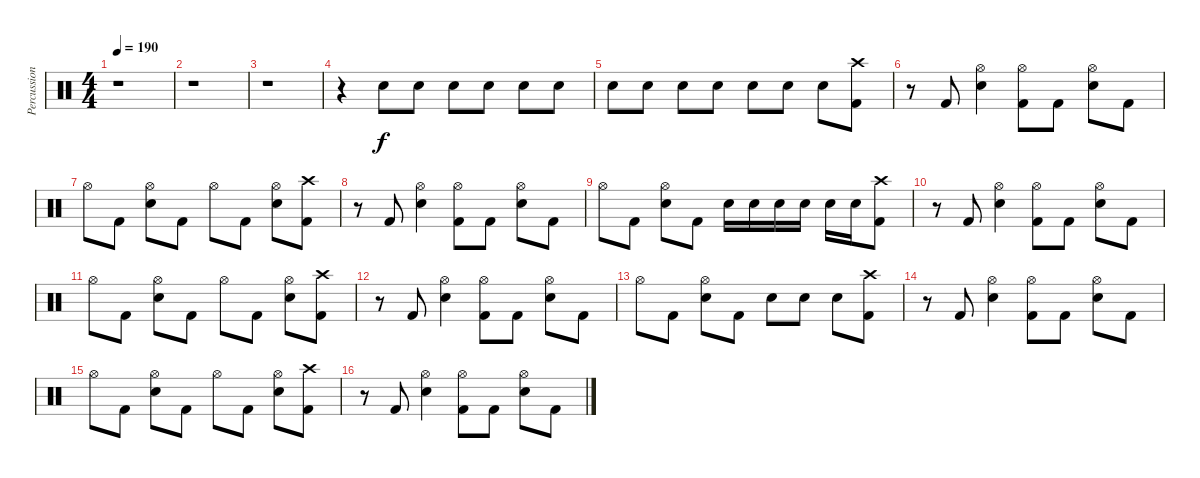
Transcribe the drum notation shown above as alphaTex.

\track ("Percussion" "Percussion") {instrument percussion}
\staff {score}
\articulation defaults
\ts (4 4)
\tempo 190
\clef neutral
\ks c
r.1{dy f} |
r.1 |
r.1 |
r.4 "Electric Snare (hit)".8 "Electric Snare (hit)".8 "Electric Snare (hit)".8 "Electric Snare (hit)".8 "Electric Snare (hit)".8 "Electric Snare (hit)".8 |
"Electric Snare (hit)".8 "Electric Snare (hit)".8 "Electric Snare (hit)".8 "Electric Snare (hit)".8 "Electric Snare (hit)".8 "Electric Snare (hit)".8 "Electric Snare (hit)".8 ("Crash high (hit)" "Kick (hit) 2").8 |
r.8 "Kick (hit) 2".8 ("Hi-Hat (open)" "Electric Snare (hit)").4 ("Hi-Hat (open)" "Kick (hit) 2").8 "Kick (hit) 2".8 ("Hi-Hat (open)" "Electric Snare (hit)").8 "Kick (hit) 2".8 |
"Hi-Hat (open)".8 "Kick (hit) 2".8 ("Hi-Hat (open)" "Electric Snare (hit)").8 "Kick (hit) 2".8 "Hi-Hat (open)".8 "Kick (hit) 2".8 ("Hi-Hat (open)" "Electric Snare (hit)").8 ("Crash high (hit)" "Kick (hit) 2").8 |
r.8 "Kick (hit) 2".8 ("Hi-Hat (open)" "Electric Snare (hit)").4 ("Hi-Hat (open)" "Kick (hit) 2").8 "Kick (hit) 2".8 ("Hi-Hat (open)" "Electric Snare (hit)").8 "Kick (hit) 2".8 |
"Hi-Hat (open)".8 "Kick (hit) 2".8 ("Hi-Hat (open)" "Electric Snare (hit)").8 "Kick (hit) 2".8 "Electric Snare (hit)".16 "Electric Snare (hit)".16 "Electric Snare (hit)".16 "Electric Snare (hit)".16 "Electric Snare (hit)".16 "Electric Snare (hit)".16 ("Crash high (hit)" "Kick (hit) 2").8 |
r.8 "Kick (hit) 2".8 ("Hi-Hat (open)" "Electric Snare (hit)").4 ("Hi-Hat (open)" "Kick (hit) 2").8 "Kick (hit) 2".8 ("Hi-Hat (open)" "Electric Snare (hit)").8 "Kick (hit) 2".8 |
"Hi-Hat (open)".8 "Kick (hit) 2".8 ("Hi-Hat (open)" "Electric Snare (hit)").8 "Kick (hit) 2".8 "Hi-Hat (open)".8 "Kick (hit) 2".8 ("Hi-Hat (open)" "Electric Snare (hit)").8 ("Crash high (hit)" "Kick (hit) 2").8 |
r.8 "Kick (hit) 2".8 ("Hi-Hat (open)" "Electric Snare (hit)").4 ("Hi-Hat (open)" "Kick (hit) 2").8 "Kick (hit) 2".8 ("Hi-Hat (open)" "Electric Snare (hit)").8 "Kick (hit) 2".8 |
"Hi-Hat (open)".8 "Kick (hit) 2".8 ("Hi-Hat (open)" "Electric Snare (hit)").8 "Kick (hit) 2".8 "Electric Snare (hit)".8 "Electric Snare (hit)".8 "Electric Snare (hit)".8 ("Crash high (hit)" "Kick (hit) 2").8 |
r.8 "Kick (hit) 2".8 ("Hi-Hat (open)" "Electric Snare (hit)").4 ("Hi-Hat (open)" "Kick (hit) 2").8 "Kick (hit) 2".8 ("Hi-Hat (open)" "Electric Snare (hit)").8 "Kick (hit) 2".8 |
"Hi-Hat (open)".8 "Kick (hit) 2".8 ("Hi-Hat (open)" "Electric Snare (hit)").8 "Kick (hit) 2".8 "Hi-Hat (open)".8 "Kick (hit) 2".8 ("Hi-Hat (open)" "Electric Snare (hit)").8 ("Crash high (hit)" "Kick (hit) 2").8 |
r.8 "Kick (hit) 2".8 ("Hi-Hat (open)" "Electric Snare (hit)").4 ("Hi-Hat (open)" "Kick (hit) 2").8 "Kick (hit) 2".8 ("Hi-Hat (open)" "Electric Snare (hit)").8 "Kick (hit) 2".8
